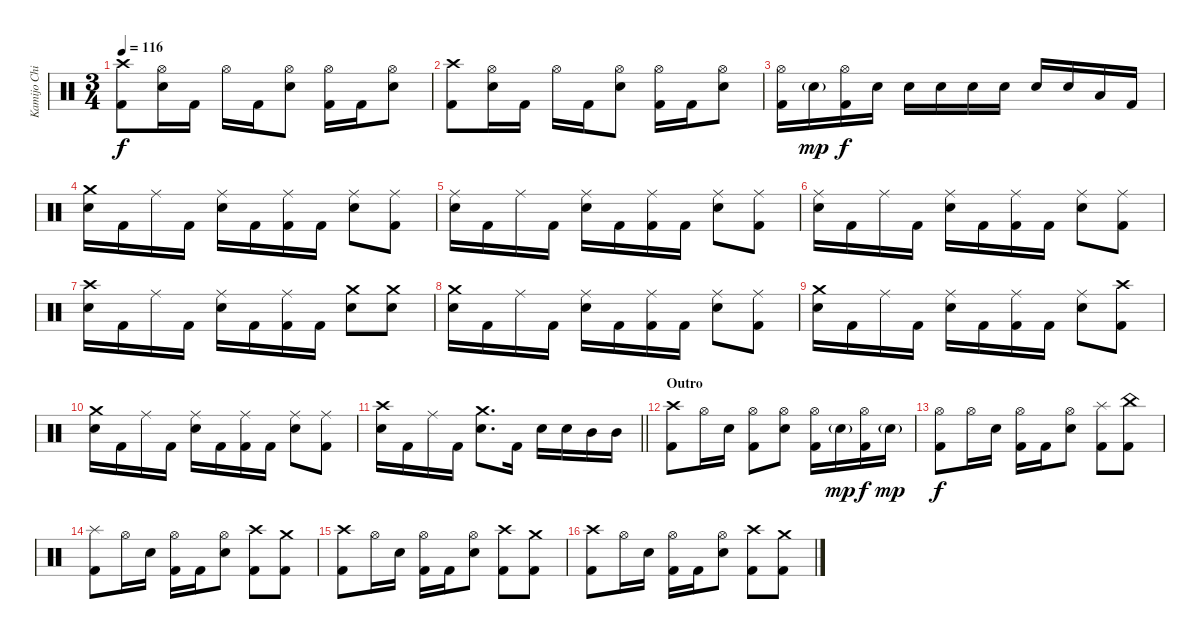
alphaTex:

\track ("Kamijo Chihiro" "Kamijo Chi") {instrument percussion}
\staff {score}
\articulation defaults
\ts (3 4)
\tempo 116
\clef neutral
\ks c
("Crash high (hit)" "Kick (hit) 2").8{dy f} ("Hi-Hat (open)" "Snare (hit) 2").16 "Kick (hit) 2".16 "Hi-Hat (open)".16 "Kick (hit) 2".16 ("Hi-Hat (open)" "Snare (hit) 2").8 ("Hi-Hat (open)" "Kick (hit) 2").16 "Kick (hit) 2".16 ("Hi-Hat (open)" "Snare (hit) 2").8 |
("Crash high (hit)" "Kick (hit) 2").8 ("Hi-Hat (open)" "Snare (hit) 2").16 "Kick (hit) 2".16 "Hi-Hat (open)".16 "Kick (hit) 2".16 ("Hi-Hat (open)" "Snare (hit) 2").8 ("Hi-Hat (open)" "Kick (hit) 2").16 "Kick (hit) 2".16 ("Hi-Hat (open)" "Snare (hit) 2").8 |
("Hi-Hat (open)" "Kick (hit) 2").16 "Snare (hit) 2"{g}.16{dy mp} ("Hi-Hat (open)" "Kick (hit) 2").16{dy f} "Snare (hit) 2".16 "Snare (hit) 2".16 "Snare (hit) 2".16 "Snare (hit) 2".16 "Snare (hit) 2".16 "Snare (hit) 2".16 "Snare (hit) 2".16 "Low Floor Tom (hit)".16 "Kick (hit) 2".16 |
("Crash medium (hit)" "Snare (hit) 2").16 "Kick (hit) 2".16 "Ride (middle)".16 "Kick (hit) 2".16 ("Ride (middle)" "Snare (hit) 2").16 "Kick (hit) 2".16 ("Ride (middle)" "Kick (hit) 2").16 "Kick (hit) 2".16 ("Ride (middle)" "Snare (hit) 2").8 ("Ride (middle)" "Kick (hit) 2").8 |
("Ride (middle)" "Snare (hit) 2").16 "Kick (hit) 2".16 "Ride (middle)".16 "Kick (hit) 2".16 ("Ride (middle)" "Snare (hit) 2").16 "Kick (hit) 2".16 ("Ride (middle)" "Kick (hit) 2").16 "Kick (hit) 2".16 ("Ride (middle)" "Snare (hit) 2").8 ("Ride (middle)" "Kick (hit) 2").8 |
("Ride (middle)" "Snare (hit) 2").16 "Kick (hit) 2".16 "Ride (middle)".16 "Kick (hit) 2".16 ("Ride (middle)" "Snare (hit) 2").16 "Kick (hit) 2".16 ("Ride (middle)" "Kick (hit) 2").16 "Kick (hit) 2".16 ("Ride (middle)" "Snare (hit) 2").8 ("Ride (middle)" "Kick (hit) 2").8 |
("Crash high (hit)" "Snare (hit) 2").16 "Kick (hit) 2".16 "Ride (middle)".16 "Kick (hit) 2".16 ("Ride (middle)" "Snare (hit) 2").16 "Kick (hit) 2".16 ("Ride (middle)" "Kick (hit) 2").16 "Kick (hit) 2".16 ("Crash medium (hit)" "Snare (hit) 2").8 ("Crash medium (hit)" "Snare (hit) 2").8 |
("Crash medium (hit)" "Snare (hit) 2").16 "Kick (hit) 2".16 "Ride (middle)".16 "Kick (hit) 2".16 ("Ride (middle)" "Snare (hit) 2").16 "Kick (hit) 2".16 ("Ride (middle)" "Kick (hit) 2").16 "Kick (hit) 2".16 ("Ride (middle)" "Snare (hit) 2").8 ("Ride (middle)" "Kick (hit) 2").8 |
("Crash medium (hit)" "Snare (hit) 2").16 "Kick (hit) 2".16 "Ride (middle)".16 "Kick (hit) 2".16 ("Ride (middle)" "Snare (hit) 2").16 "Kick (hit) 2".16 ("Ride (middle)" "Kick (hit) 2").16 "Kick (hit) 2".16 ("Ride (middle)" "Snare (hit) 2").8 ("Crash high (hit)" "Kick (hit) 2").8 |
("Crash medium (hit)" "Snare (hit) 2").16 "Kick (hit) 2".16 "Ride (middle)".16 "Kick (hit) 2".16 ("Ride (middle)" "Snare (hit) 2").16 "Kick (hit) 2".16 ("Ride (middle)" "Kick (hit) 2").16 "Kick (hit) 2".16 ("Ride (middle)" "Snare (hit) 2").8 ("Ride (middle)" "Kick (hit) 2").8 |
\barLineRight lightlight
("Crash high (hit)" "Snare (hit) 2").16 "Kick (hit) 2".16 "Ride (middle)".16 "Kick (hit) 2".16 ("Crash medium (hit)" "Snare (hit) 2").8{d} "Kick (hit) 2".16 "Snare (hit) 2".16 "Snare (hit) 2".16 "Mid Tom (hit)".16 "Mid Tom (hit)".16 |
\section ("" "Outro")
("Crash high (hit)" "Kick (hit) 2").8 "Hi-Hat (open)".16 "Snare (hit) 2".16 ("Hi-Hat (open)" "Kick (hit) 2").8 ("Hi-Hat (open)" "Snare (hit) 2").8 ("Hi-Hat (open)" "Kick (hit) 2").16 "Snare (hit) 2"{g}.16{dy mp} ("Hi-Hat (open)" "Kick (hit) 2").16{dy f} "Snare (hit) 2"{g}.16{dy mp} |
("Hi-Hat (open)" "Kick (hit) 2").8{dy f} "Hi-Hat (open)".16 "Snare (hit) 2".16 ("Hi-Hat (open)" "Kick (hit) 2").16 "Kick (hit) 2".16 ("Hi-Hat (open)" "Snare (hit) 2").8 ("Splash (hit)" "Kick (hit) 2").8 ("China (hit)" "Kick (hit) 2").8 |
("Splash (hit)" "Kick (hit) 2").8 "Hi-Hat (open)".16 "Snare (hit) 2".16 ("Hi-Hat (open)" "Kick (hit) 2").16 "Kick (hit) 2".16 ("Hi-Hat (open)" "Snare (hit) 2").8 ("Crash high (hit)" "Kick (hit) 2").8 ("Crash medium (hit)" "Kick (hit) 2").8 |
("Crash high (hit)" "Kick (hit) 2").8 "Hi-Hat (open)".16 "Snare (hit) 2".16 ("Hi-Hat (open)" "Kick (hit) 2").16 "Kick (hit) 2".16 ("Hi-Hat (open)" "Snare (hit) 2").8 ("Crash high (hit)" "Kick (hit) 2").8 ("Crash medium (hit)" "Kick (hit) 2").8 |
("Crash high (hit)" "Kick (hit) 2").8 "Hi-Hat (open)".16 "Snare (hit) 2".16 ("Hi-Hat (open)" "Kick (hit) 2").16 "Kick (hit) 2".16 ("Hi-Hat (open)" "Snare (hit) 2").8 ("Crash high (hit)" "Kick (hit) 2").8 ("Crash medium (hit)" "Kick (hit) 2").8
